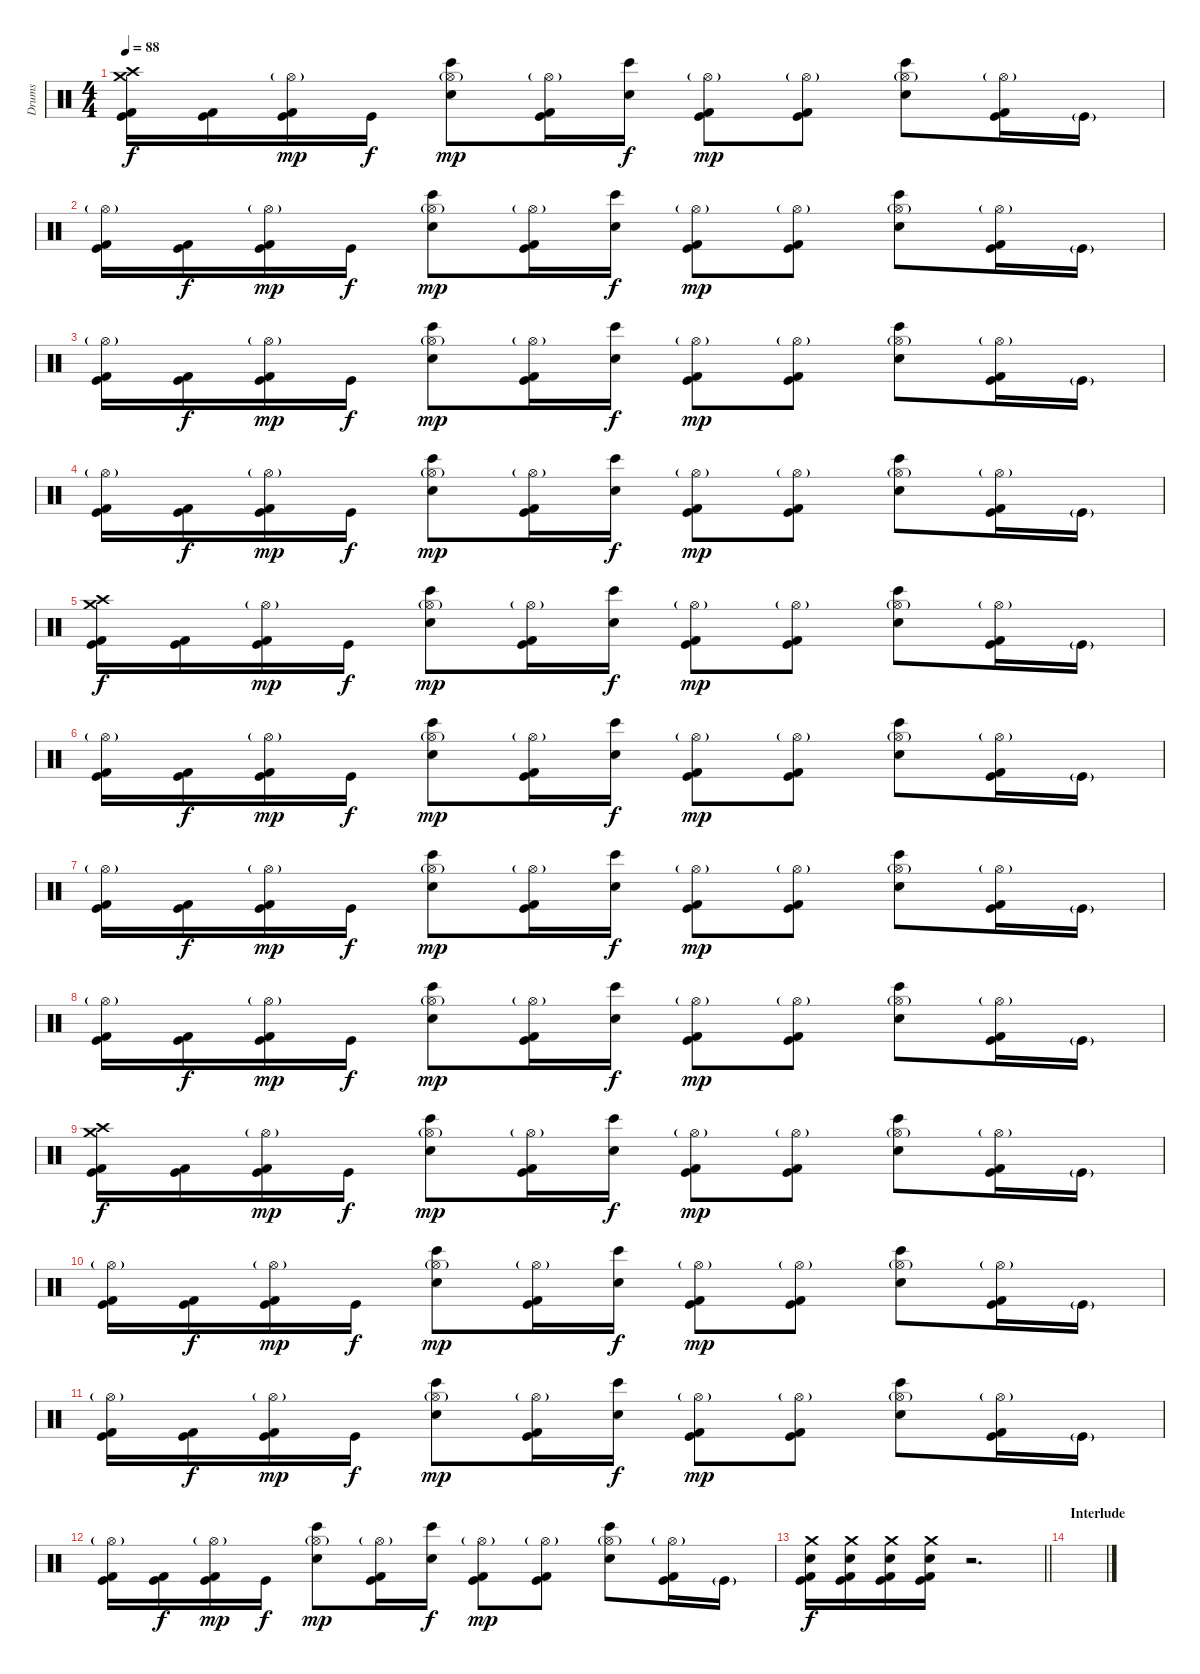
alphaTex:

\track ("Drums" "Drums") {instrument percussion}
\staff {score}
\articulation defaults
\ts (4 4)
\tempo 88
\clef neutral
\ks c
("Crash medium (hit)" "Crash high (hit)" "Kick (hit) 2" "Kick (hit)").16{dy f} ("Kick (hit) 2" "Kick (hit)").16 ("Hi-Hat (open)"{g} "Kick (hit) 2" "Kick (hit)").16{dy mp} "Kick (hit)".16{dy f} ("Hi-Hat (open)"{g} "Bongo High (hit)" "Snare (hit) 2").8{dy mp} ("Hi-Hat (open)"{g} "Kick (hit) 2" "Kick (hit)").16 ("Bongo High (hit)" "Snare (hit) 2").16{dy f} ("Hi-Hat (open)"{g} "Kick (hit) 2" "Kick (hit)").8{dy mp} ("Hi-Hat (open)"{g} "Kick (hit) 2" "Kick (hit)").8 ("Hi-Hat (open)"{g} "Bongo High (hit)" "Snare (hit) 2").8 ("Hi-Hat (open)"{g} "Kick (hit) 2" "Kick (hit)").16 "Kick (hit)"{g}.16 |
("Hi-Hat (open)"{g} "Kick (hit) 2" "Kick (hit)").16 ("Kick (hit) 2" "Kick (hit)").16{dy f} ("Hi-Hat (open)"{g} "Kick (hit) 2" "Kick (hit)").16{dy mp} "Kick (hit)".16{dy f} ("Hi-Hat (open)"{g} "Bongo High (hit)" "Snare (hit) 2").8{dy mp} ("Hi-Hat (open)"{g} "Kick (hit) 2" "Kick (hit)").16 ("Bongo High (hit)" "Snare (hit) 2").16{dy f} ("Hi-Hat (open)"{g} "Kick (hit) 2" "Kick (hit)").8{dy mp} ("Hi-Hat (open)"{g} "Kick (hit) 2" "Kick (hit)").8 ("Hi-Hat (open)"{g} "Bongo High (hit)" "Snare (hit) 2").8 ("Hi-Hat (open)"{g} "Kick (hit) 2" "Kick (hit)").16 "Kick (hit)"{g}.16 |
("Hi-Hat (open)"{g} "Kick (hit) 2" "Kick (hit)").16 ("Kick (hit) 2" "Kick (hit)").16{dy f} ("Hi-Hat (open)"{g} "Kick (hit) 2" "Kick (hit)").16{dy mp} "Kick (hit)".16{dy f} ("Hi-Hat (open)"{g} "Bongo High (hit)" "Snare (hit) 2").8{dy mp} ("Hi-Hat (open)"{g} "Kick (hit) 2" "Kick (hit)").16 ("Bongo High (hit)" "Snare (hit) 2").16{dy f} ("Hi-Hat (open)"{g} "Kick (hit) 2" "Kick (hit)").8{dy mp} ("Hi-Hat (open)"{g} "Kick (hit) 2" "Kick (hit)").8 ("Hi-Hat (open)"{g} "Bongo High (hit)" "Snare (hit) 2").8 ("Hi-Hat (open)"{g} "Kick (hit) 2" "Kick (hit)").16 "Kick (hit)"{g}.16 |
("Hi-Hat (open)"{g} "Kick (hit) 2" "Kick (hit)").16 ("Kick (hit) 2" "Kick (hit)").16{dy f} ("Hi-Hat (open)"{g} "Kick (hit) 2" "Kick (hit)").16{dy mp} "Kick (hit)".16{dy f} ("Hi-Hat (open)"{g} "Bongo High (hit)" "Snare (hit) 2").8{dy mp} ("Hi-Hat (open)"{g} "Kick (hit) 2" "Kick (hit)").16 ("Bongo High (hit)" "Snare (hit) 2").16{dy f} ("Hi-Hat (open)"{g} "Kick (hit) 2" "Kick (hit)").8{dy mp} ("Hi-Hat (open)"{g} "Kick (hit) 2" "Kick (hit)").8 ("Hi-Hat (open)"{g} "Bongo High (hit)" "Snare (hit) 2").8 ("Hi-Hat (open)"{g} "Kick (hit) 2" "Kick (hit)").16 "Kick (hit)"{g}.16 |
("Crash medium (hit)" "Crash high (hit)" "Kick (hit) 2" "Kick (hit)").16{dy f} ("Kick (hit) 2" "Kick (hit)").16 ("Hi-Hat (open)"{g} "Kick (hit) 2" "Kick (hit)").16{dy mp} "Kick (hit)".16{dy f} ("Hi-Hat (open)"{g} "Bongo High (hit)" "Snare (hit) 2").8{dy mp} ("Hi-Hat (open)"{g} "Kick (hit) 2" "Kick (hit)").16 ("Bongo High (hit)" "Snare (hit) 2").16{dy f} ("Hi-Hat (open)"{g} "Kick (hit) 2" "Kick (hit)").8{dy mp} ("Hi-Hat (open)"{g} "Kick (hit) 2" "Kick (hit)").8 ("Hi-Hat (open)"{g} "Bongo High (hit)" "Snare (hit) 2").8 ("Hi-Hat (open)"{g} "Kick (hit) 2" "Kick (hit)").16 "Kick (hit)"{g}.16 |
("Hi-Hat (open)"{g} "Kick (hit) 2" "Kick (hit)").16 ("Kick (hit) 2" "Kick (hit)").16{dy f} ("Hi-Hat (open)"{g} "Kick (hit) 2" "Kick (hit)").16{dy mp} "Kick (hit)".16{dy f} ("Hi-Hat (open)"{g} "Bongo High (hit)" "Snare (hit) 2").8{dy mp} ("Hi-Hat (open)"{g} "Kick (hit) 2" "Kick (hit)").16 ("Bongo High (hit)" "Snare (hit) 2").16{dy f} ("Hi-Hat (open)"{g} "Kick (hit) 2" "Kick (hit)").8{dy mp} ("Hi-Hat (open)"{g} "Kick (hit) 2" "Kick (hit)").8 ("Hi-Hat (open)"{g} "Bongo High (hit)" "Snare (hit) 2").8 ("Hi-Hat (open)"{g} "Kick (hit) 2" "Kick (hit)").16 "Kick (hit)"{g}.16 |
("Hi-Hat (open)"{g} "Kick (hit) 2" "Kick (hit)").16 ("Kick (hit) 2" "Kick (hit)").16{dy f} ("Hi-Hat (open)"{g} "Kick (hit) 2" "Kick (hit)").16{dy mp} "Kick (hit)".16{dy f} ("Hi-Hat (open)"{g} "Bongo High (hit)" "Snare (hit) 2").8{dy mp} ("Hi-Hat (open)"{g} "Kick (hit) 2" "Kick (hit)").16 ("Bongo High (hit)" "Snare (hit) 2").16{dy f} ("Hi-Hat (open)"{g} "Kick (hit) 2" "Kick (hit)").8{dy mp} ("Hi-Hat (open)"{g} "Kick (hit) 2" "Kick (hit)").8 ("Hi-Hat (open)"{g} "Bongo High (hit)" "Snare (hit) 2").8 ("Hi-Hat (open)"{g} "Kick (hit) 2" "Kick (hit)").16 "Kick (hit)"{g}.16 |
("Hi-Hat (open)"{g} "Kick (hit) 2" "Kick (hit)").16 ("Kick (hit) 2" "Kick (hit)").16{dy f} ("Hi-Hat (open)"{g} "Kick (hit) 2" "Kick (hit)").16{dy mp} "Kick (hit)".16{dy f} ("Hi-Hat (open)"{g} "Bongo High (hit)" "Snare (hit) 2").8{dy mp} ("Hi-Hat (open)"{g} "Kick (hit) 2" "Kick (hit)").16 ("Bongo High (hit)" "Snare (hit) 2").16{dy f} ("Hi-Hat (open)"{g} "Kick (hit) 2" "Kick (hit)").8{dy mp} ("Hi-Hat (open)"{g} "Kick (hit) 2" "Kick (hit)").8 ("Hi-Hat (open)"{g} "Bongo High (hit)" "Snare (hit) 2").8 ("Hi-Hat (open)"{g} "Kick (hit) 2" "Kick (hit)").16 "Kick (hit)"{g}.16 |
("Crash medium (hit)" "Crash high (hit)" "Kick (hit) 2" "Kick (hit)").16{dy f} ("Kick (hit) 2" "Kick (hit)").16 ("Hi-Hat (open)"{g} "Kick (hit) 2" "Kick (hit)").16{dy mp} "Kick (hit)".16{dy f} ("Hi-Hat (open)"{g} "Bongo High (hit)" "Snare (hit) 2").8{dy mp} ("Hi-Hat (open)"{g} "Kick (hit) 2" "Kick (hit)").16 ("Bongo High (hit)" "Snare (hit) 2").16{dy f} ("Hi-Hat (open)"{g} "Kick (hit) 2" "Kick (hit)").8{dy mp} ("Hi-Hat (open)"{g} "Kick (hit) 2" "Kick (hit)").8 ("Hi-Hat (open)"{g} "Bongo High (hit)" "Snare (hit) 2").8 ("Hi-Hat (open)"{g} "Kick (hit) 2" "Kick (hit)").16 "Kick (hit)"{g}.16 |
("Hi-Hat (open)"{g} "Kick (hit) 2" "Kick (hit)").16 ("Kick (hit) 2" "Kick (hit)").16{dy f} ("Hi-Hat (open)"{g} "Kick (hit) 2" "Kick (hit)").16{dy mp} "Kick (hit)".16{dy f} ("Hi-Hat (open)"{g} "Bongo High (hit)" "Snare (hit) 2").8{dy mp} ("Hi-Hat (open)"{g} "Kick (hit) 2" "Kick (hit)").16 ("Bongo High (hit)" "Snare (hit) 2").16{dy f} ("Hi-Hat (open)"{g} "Kick (hit) 2" "Kick (hit)").8{dy mp} ("Hi-Hat (open)"{g} "Kick (hit) 2" "Kick (hit)").8 ("Hi-Hat (open)"{g} "Bongo High (hit)" "Snare (hit) 2").8 ("Hi-Hat (open)"{g} "Kick (hit) 2" "Kick (hit)").16 "Kick (hit)"{g}.16 |
("Hi-Hat (open)"{g} "Kick (hit) 2" "Kick (hit)").16 ("Kick (hit) 2" "Kick (hit)").16{dy f} ("Hi-Hat (open)"{g} "Kick (hit) 2" "Kick (hit)").16{dy mp} "Kick (hit)".16{dy f} ("Hi-Hat (open)"{g} "Bongo High (hit)" "Snare (hit) 2").8{dy mp} ("Hi-Hat (open)"{g} "Kick (hit) 2" "Kick (hit)").16 ("Bongo High (hit)" "Snare (hit) 2").16{dy f} ("Hi-Hat (open)"{g} "Kick (hit) 2" "Kick (hit)").8{dy mp} ("Hi-Hat (open)"{g} "Kick (hit) 2" "Kick (hit)").8 ("Hi-Hat (open)"{g} "Bongo High (hit)" "Snare (hit) 2").8 ("Hi-Hat (open)"{g} "Kick (hit) 2" "Kick (hit)").16 "Kick (hit)"{g}.16 |
("Hi-Hat (open)"{g} "Kick (hit) 2" "Kick (hit)").16 ("Kick (hit) 2" "Kick (hit)").16{dy f} ("Hi-Hat (open)"{g} "Kick (hit) 2" "Kick (hit)").16{dy mp} "Kick (hit)".16{dy f} ("Hi-Hat (open)"{g} "Bongo High (hit)" "Snare (hit) 2").8{dy mp} ("Hi-Hat (open)"{g} "Kick (hit) 2" "Kick (hit)").16 ("Bongo High (hit)" "Snare (hit) 2").16{dy f} ("Hi-Hat (open)"{g} "Kick (hit) 2" "Kick (hit)").8{dy mp} ("Hi-Hat (open)"{g} "Kick (hit) 2" "Kick (hit)").8 ("Hi-Hat (open)"{g} "Bongo High (hit)" "Snare (hit) 2").8 ("Hi-Hat (open)"{g} "Kick (hit) 2" "Kick (hit)").16 "Kick (hit)"{g}.16 |
\barLineRight lightlight
("Crash medium (hit)" "Snare (hit) 2" "Kick (hit) 2" "Kick (hit)").16{dy f} ("Crash medium (hit)" "Snare (hit) 2" "Kick (hit) 2" "Kick (hit)").16 ("Crash medium (hit)" "Snare (hit) 2" "Kick (hit) 2" "Kick (hit)").16 ("Crash medium (hit)" "Snare (hit) 2" "Kick (hit) 2" "Kick (hit)").16 r.2{d} |
\section ("" "Interlude")
